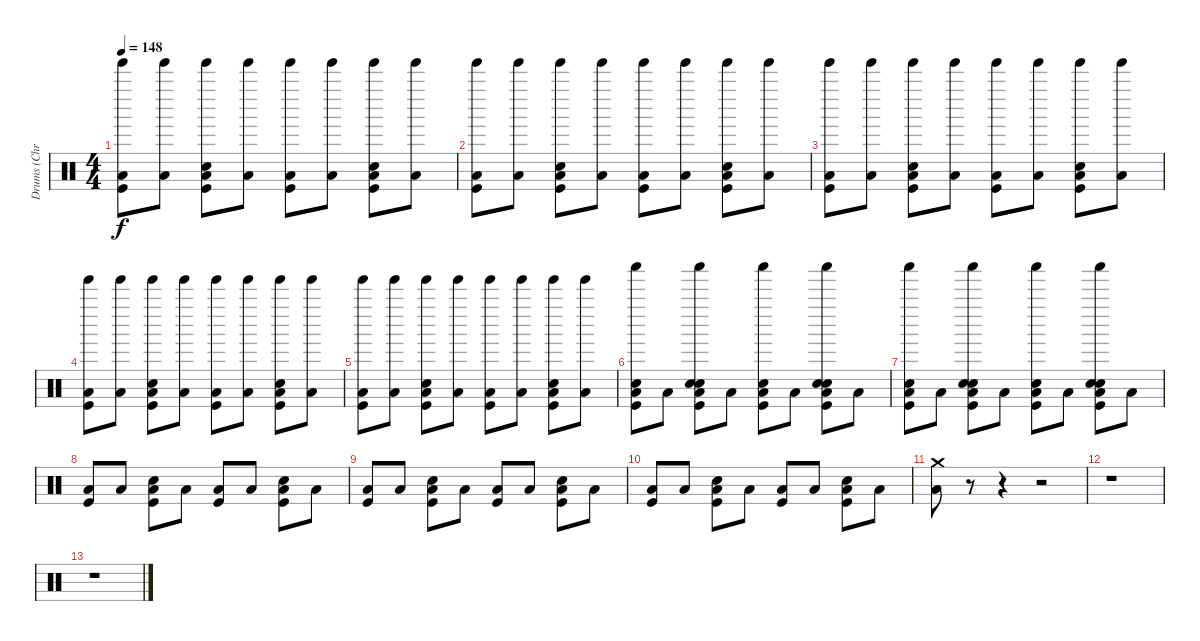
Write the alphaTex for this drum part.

\track ("Drums (Chris Dangerous)" "Drums (Chr") {instrument percussion}
\staff {score}
\articulation defaults
\ts (4 4)
\tempo 148
\clef neutral
\ks c
("Low Tom (hit)" "Kick (hit)" "Tinkle Bell (hit)").8{dy f} ("Low Tom (hit)" "Tinkle Bell (hit)").8 ("Low Tom (hit)" "Kick (hit)" "Snare (hit) 2" "Tinkle Bell (hit)").8 ("Low Tom (hit)" "Tinkle Bell (hit)").8 ("Low Tom (hit)" "Kick (hit)" "Tinkle Bell (hit)").8 ("Low Tom (hit)" "Tinkle Bell (hit)").8 ("Low Tom (hit)" "Kick (hit)" "Snare (hit) 2" "Tinkle Bell (hit)").8 ("Low Tom (hit)" "Tinkle Bell (hit)").8 |
("Low Tom (hit)" "Kick (hit)" "Tinkle Bell (hit)").8 ("Low Tom (hit)" "Tinkle Bell (hit)").8 ("Low Tom (hit)" "Kick (hit)" "Snare (hit) 2" "Tinkle Bell (hit)").8 ("Low Tom (hit)" "Tinkle Bell (hit)").8 ("Low Tom (hit)" "Kick (hit)" "Tinkle Bell (hit)").8 ("Low Tom (hit)" "Tinkle Bell (hit)").8 ("Low Tom (hit)" "Kick (hit)" "Snare (hit) 2" "Tinkle Bell (hit)").8 ("Low Tom (hit)" "Tinkle Bell (hit)").8 |
("Low Tom (hit)" "Kick (hit)" "Tinkle Bell (hit)").8 ("Low Tom (hit)" "Tinkle Bell (hit)").8 ("Low Tom (hit)" "Kick (hit)" "Snare (hit) 2" "Tinkle Bell (hit)").8 ("Low Tom (hit)" "Tinkle Bell (hit)").8 ("Low Tom (hit)" "Kick (hit)" "Tinkle Bell (hit)").8 ("Low Tom (hit)" "Tinkle Bell (hit)").8 ("Low Tom (hit)" "Kick (hit)" "Snare (hit) 2" "Tinkle Bell (hit)").8 ("Low Tom (hit)" "Tinkle Bell (hit)").8 |
("Low Tom (hit)" "Kick (hit)" "Tinkle Bell (hit)").8 ("Low Tom (hit)" "Tinkle Bell (hit)").8 ("Low Tom (hit)" "Kick (hit)" "Snare (hit) 2" "Tinkle Bell (hit)").8 ("Low Tom (hit)" "Tinkle Bell (hit)").8 ("Low Tom (hit)" "Kick (hit)" "Tinkle Bell (hit)").8 ("Low Tom (hit)" "Tinkle Bell (hit)").8 ("Low Tom (hit)" "Kick (hit)" "Snare (hit) 2" "Tinkle Bell (hit)").8 ("Low Tom (hit)" "Tinkle Bell (hit)").8 |
("Low Tom (hit)" "Kick (hit)" "Tinkle Bell (hit)").8 ("Low Tom (hit)" "Tinkle Bell (hit)").8 ("Low Tom (hit)" "Kick (hit)" "Snare (hit) 2" "Tinkle Bell (hit)").8 ("Low Tom (hit)" "Tinkle Bell (hit)").8 ("Low Tom (hit)" "Kick (hit)" "Tinkle Bell (hit)").8 ("Low Tom (hit)" "Tinkle Bell (hit)").8 ("Low Tom (hit)" "Kick (hit)" "Snare (hit) 2" "Tinkle Bell (hit)").8 ("Low Tom (hit)" "Tinkle Bell (hit)").8 |
("Low Tom (hit)" "Kick (hit)" "Hand Clap (hit)" "Shaker (hit)").8 "Low Tom (hit)".8 ("Low Tom (hit)" "Kick (hit)" "Snare (hit) 2" "Hand Clap (hit)" "Shaker (hit)").8 "Low Tom (hit)".8 ("Low Tom (hit)" "Kick (hit)" "Hand Clap (hit)" "Shaker (hit)").8 "Low Tom (hit)".8 ("Low Tom (hit)" "Kick (hit)" "Snare (hit) 2" "Hand Clap (hit)" "Shaker (hit)").8 "Low Tom (hit)".8 |
("Low Tom (hit)" "Kick (hit)" "Hand Clap (hit)" "Shaker (hit)").8 "Low Tom (hit)".8 ("Low Tom (hit)" "Kick (hit)" "Snare (hit) 2" "Hand Clap (hit)" "Shaker (hit)").8 "Low Tom (hit)".8 ("Low Tom (hit)" "Kick (hit)" "Hand Clap (hit)" "Shaker (hit)").8 "Low Tom (hit)".8 ("Low Tom (hit)" "Kick (hit)" "Snare (hit) 2" "Hand Clap (hit)" "Shaker (hit)").8 "Low Tom (hit)".8 |
("Low Tom (hit)" "Kick (hit)").8 "Low Tom (hit)".8 ("Low Tom (hit)" "Kick (hit)" "Snare (hit) 2").8 "Low Tom (hit)".8 ("Low Tom (hit)" "Kick (hit)").8 "Low Tom (hit)".8 ("Low Tom (hit)" "Kick (hit)" "Snare (hit) 2").8 "Low Tom (hit)".8 |
("Low Tom (hit)" "Kick (hit)").8 "Low Tom (hit)".8 ("Low Tom (hit)" "Kick (hit)" "Snare (hit) 2").8 "Low Tom (hit)".8 ("Low Tom (hit)" "Kick (hit)").8 "Low Tom (hit)".8 ("Low Tom (hit)" "Kick (hit)" "Snare (hit) 2").8 "Low Tom (hit)".8 |
("Low Tom (hit)" "Kick (hit)").8 "Low Tom (hit)".8 ("Low Tom (hit)" "Kick (hit)" "Snare (hit) 2").8 "Low Tom (hit)".8 ("Low Tom (hit)" "Kick (hit)").8 "Low Tom (hit)".8 ("Low Tom (hit)" "Kick (hit)" "Snare (hit) 2").8 "Low Tom (hit)".8 |
("Low Tom (hit)" "Crash medium (hit)").8 r.8 r.4 r.2 |
r.1 |
r.1
